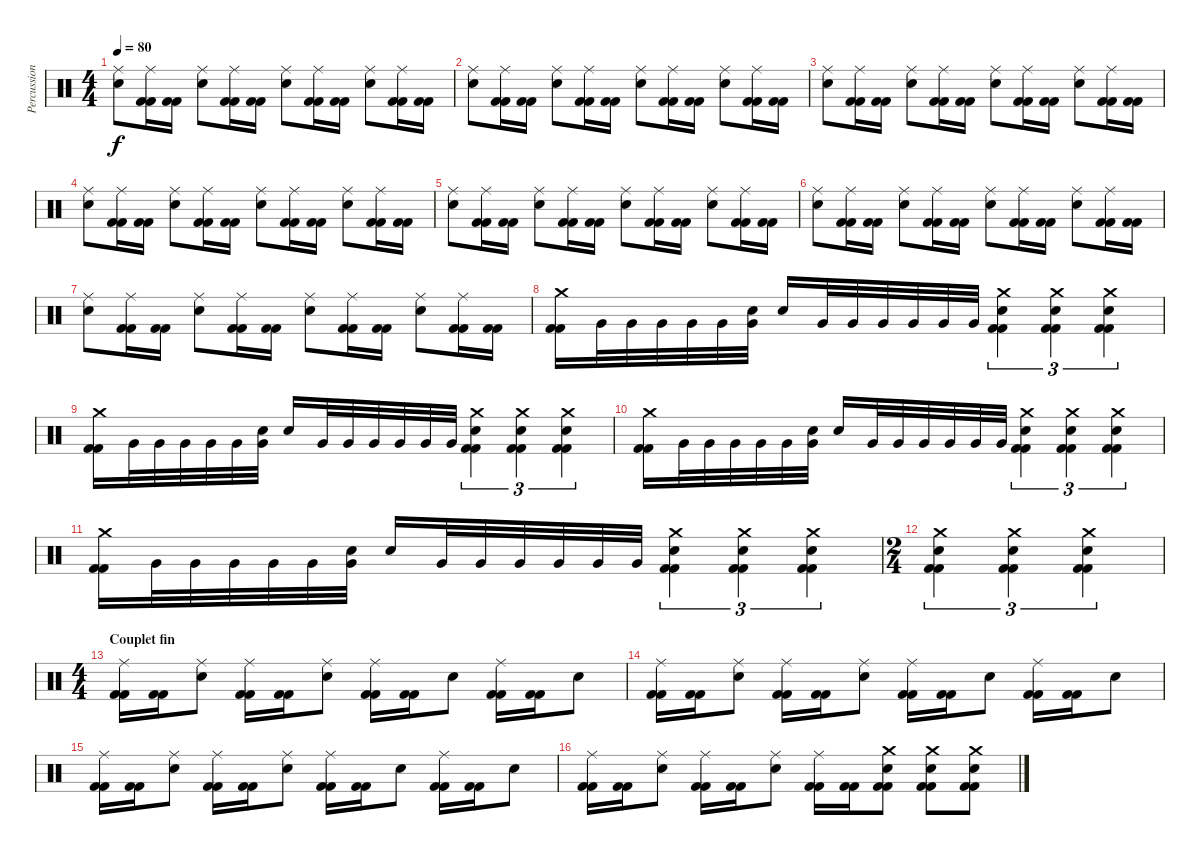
\track ("Percussions" "Percussion") {instrument percussion}
\staff {score}
\articulation defaults
\ts (4 4)
\tempo 80
\clef neutral
\ks c
("Snare (hit) 2" "Ride (middle)").8{dy f} ("Kick (hit) 2" "Kick (hit) 2" "Ride (middle)").16 ("Kick (hit) 2" "Kick (hit) 2").16 ("Snare (hit) 2" "Ride (middle)").8 ("Kick (hit) 2" "Kick (hit) 2" "Ride (middle)").16 ("Kick (hit) 2" "Kick (hit) 2").16 ("Snare (hit) 2" "Ride (middle)").8 ("Kick (hit) 2" "Kick (hit) 2" "Ride (middle)").16 ("Kick (hit) 2" "Kick (hit) 2").16 ("Snare (hit) 2" "Ride (middle)").8 ("Kick (hit) 2" "Kick (hit) 2" "Ride (middle)").16 ("Kick (hit) 2" "Kick (hit) 2").16 |
("Snare (hit) 2" "Ride (middle)").8 ("Kick (hit) 2" "Kick (hit) 2" "Ride (middle)").16 ("Kick (hit) 2" "Kick (hit) 2").16 ("Snare (hit) 2" "Ride (middle)").8 ("Kick (hit) 2" "Kick (hit) 2" "Ride (middle)").16 ("Kick (hit) 2" "Kick (hit) 2").16 ("Snare (hit) 2" "Ride (middle)").8 ("Kick (hit) 2" "Kick (hit) 2" "Ride (middle)").16 ("Kick (hit) 2" "Kick (hit) 2").16 ("Snare (hit) 2" "Ride (middle)").8 ("Kick (hit) 2" "Kick (hit) 2" "Ride (middle)").16 ("Kick (hit) 2" "Kick (hit) 2").16 |
("Snare (hit) 2" "Ride (middle)").8 ("Kick (hit) 2" "Kick (hit) 2" "Ride (middle)").16 ("Kick (hit) 2" "Kick (hit) 2").16 ("Snare (hit) 2" "Ride (middle)").8 ("Kick (hit) 2" "Kick (hit) 2" "Ride (middle)").16 ("Kick (hit) 2" "Kick (hit) 2").16 ("Snare (hit) 2" "Ride (middle)").8 ("Kick (hit) 2" "Kick (hit) 2" "Ride (middle)").16 ("Kick (hit) 2" "Kick (hit) 2").16 ("Snare (hit) 2" "Ride (middle)").8 ("Kick (hit) 2" "Kick (hit) 2" "Ride (middle)").16 ("Kick (hit) 2" "Kick (hit) 2").16 |
("Snare (hit) 2" "Ride (middle)").8 ("Kick (hit) 2" "Kick (hit) 2" "Ride (middle)").16 ("Kick (hit) 2" "Kick (hit) 2").16 ("Snare (hit) 2" "Ride (middle)").8 ("Kick (hit) 2" "Kick (hit) 2" "Ride (middle)").16 ("Kick (hit) 2" "Kick (hit) 2").16 ("Snare (hit) 2" "Ride (middle)").8 ("Kick (hit) 2" "Kick (hit) 2" "Ride (middle)").16 ("Kick (hit) 2" "Kick (hit) 2").16 ("Snare (hit) 2" "Ride (middle)").8 ("Kick (hit) 2" "Kick (hit) 2" "Ride (middle)").16 ("Kick (hit) 2" "Kick (hit) 2").16 |
("Snare (hit) 2" "Ride (middle)").8 ("Kick (hit) 2" "Kick (hit) 2" "Ride (middle)").16 ("Kick (hit) 2" "Kick (hit) 2").16 ("Snare (hit) 2" "Ride (middle)").8 ("Kick (hit) 2" "Kick (hit) 2" "Ride (middle)").16 ("Kick (hit) 2" "Kick (hit) 2").16 ("Snare (hit) 2" "Ride (middle)").8 ("Kick (hit) 2" "Kick (hit) 2" "Ride (middle)").16 ("Kick (hit) 2" "Kick (hit) 2").16 ("Snare (hit) 2" "Ride (middle)").8 ("Kick (hit) 2" "Kick (hit) 2" "Ride (middle)").16 ("Kick (hit) 2" "Kick (hit) 2").16 |
("Snare (hit) 2" "Ride (middle)").8 ("Kick (hit) 2" "Kick (hit) 2" "Ride (middle)").16 ("Kick (hit) 2" "Kick (hit) 2").16 ("Snare (hit) 2" "Ride (middle)").8 ("Kick (hit) 2" "Kick (hit) 2" "Ride (middle)").16 ("Kick (hit) 2" "Kick (hit) 2").16 ("Snare (hit) 2" "Ride (middle)").8 ("Kick (hit) 2" "Kick (hit) 2" "Ride (middle)").16 ("Kick (hit) 2" "Kick (hit) 2").16 ("Snare (hit) 2" "Ride (middle)").8 ("Kick (hit) 2" "Kick (hit) 2" "Ride (middle)").16 ("Kick (hit) 2" "Kick (hit) 2").16 |
("Snare (hit) 2" "Ride (middle)").8 ("Kick (hit) 2" "Kick (hit) 2" "Ride (middle)").16 ("Kick (hit) 2" "Kick (hit) 2").16 ("Snare (hit) 2" "Ride (middle)").8 ("Kick (hit) 2" "Kick (hit) 2" "Ride (middle)").16 ("Kick (hit) 2" "Kick (hit) 2").16 ("Snare (hit) 2" "Ride (middle)").8 ("Kick (hit) 2" "Kick (hit) 2" "Ride (middle)").16 ("Kick (hit) 2" "Kick (hit) 2").16 ("Snare (hit) 2" "Ride (middle)").8 ("Kick (hit) 2" "Kick (hit) 2" "Ride (middle)").16 ("Kick (hit) 2" "Kick (hit) 2").16 |
("Crash medium (hit)" "Kick (hit) 2" "Kick (hit) 2").16 "Very Low Tom (hit)".32 "Very Low Tom (hit)".32 "Very Low Tom (hit)".32 "Very Low Tom (hit)".32 "Very Low Tom (hit)".32 ("Snare (hit) 2" "Very Low Tom (hit)").32 "Snare (hit) 2".16 "Very Low Tom (hit)".32 "Very Low Tom (hit)".32 "Very Low Tom (hit)".32 "Very Low Tom (hit)".32 "Very Low Tom (hit)".32 "Very Low Tom (hit)".32 ("Snare (hit) 2" "Kick (hit) 2" "Kick (hit) 2" "Crash medium (hit)").4{tu (3 2)} ("Snare (hit) 2" "Kick (hit) 2" "Kick (hit) 2" "Crash medium (hit)").4{tu (3 2)} ("Snare (hit) 2" "Kick (hit) 2" "Kick (hit) 2" "Crash medium (hit)").4{tu (3 2)} |
("Crash medium (hit)" "Kick (hit) 2" "Kick (hit) 2").16 "Very Low Tom (hit)".32 "Very Low Tom (hit)".32 "Very Low Tom (hit)".32 "Very Low Tom (hit)".32 "Very Low Tom (hit)".32 ("Snare (hit) 2" "Very Low Tom (hit)").32 "Snare (hit) 2".16 "Very Low Tom (hit)".32 "Very Low Tom (hit)".32 "Very Low Tom (hit)".32 "Very Low Tom (hit)".32 "Very Low Tom (hit)".32 "Very Low Tom (hit)".32 ("Snare (hit) 2" "Kick (hit) 2" "Kick (hit) 2" "Crash medium (hit)").4{tu (3 2)} ("Snare (hit) 2" "Kick (hit) 2" "Kick (hit) 2" "Crash medium (hit)").4{tu (3 2)} ("Snare (hit) 2" "Kick (hit) 2" "Kick (hit) 2" "Crash medium (hit)").4{tu (3 2)} |
("Crash medium (hit)" "Kick (hit) 2" "Kick (hit) 2").16 "Very Low Tom (hit)".32 "Very Low Tom (hit)".32 "Very Low Tom (hit)".32 "Very Low Tom (hit)".32 "Very Low Tom (hit)".32 ("Snare (hit) 2" "Very Low Tom (hit)").32 "Snare (hit) 2".16 "Very Low Tom (hit)".32 "Very Low Tom (hit)".32 "Very Low Tom (hit)".32 "Very Low Tom (hit)".32 "Very Low Tom (hit)".32 "Very Low Tom (hit)".32 ("Snare (hit) 2" "Kick (hit) 2" "Kick (hit) 2" "Crash medium (hit)").4{tu (3 2)} ("Snare (hit) 2" "Kick (hit) 2" "Kick (hit) 2" "Crash medium (hit)").4{tu (3 2)} ("Snare (hit) 2" "Kick (hit) 2" "Kick (hit) 2" "Crash medium (hit)").4{tu (3 2)} |
("Crash medium (hit)" "Kick (hit) 2" "Kick (hit) 2").16 "Very Low Tom (hit)".32 "Very Low Tom (hit)".32 "Very Low Tom (hit)".32 "Very Low Tom (hit)".32 "Very Low Tom (hit)".32 ("Snare (hit) 2" "Very Low Tom (hit)").32 "Snare (hit) 2".16 "Very Low Tom (hit)".32 "Very Low Tom (hit)".32 "Very Low Tom (hit)".32 "Very Low Tom (hit)".32 "Very Low Tom (hit)".32 "Very Low Tom (hit)".32 ("Snare (hit) 2" "Kick (hit) 2" "Kick (hit) 2" "Crash medium (hit)").4{tu (3 2)} ("Snare (hit) 2" "Kick (hit) 2" "Kick (hit) 2" "Crash medium (hit)").4{tu (3 2)} ("Snare (hit) 2" "Kick (hit) 2" "Kick (hit) 2" "Crash medium (hit)").4{tu (3 2)} |
\ts (2 4)
("Snare (hit) 2" "Kick (hit) 2" "Kick (hit) 2" "Crash medium (hit)").4{tu (3 2)} ("Snare (hit) 2" "Kick (hit) 2" "Kick (hit) 2" "Crash medium (hit)").4{tu (3 2)} ("Snare (hit) 2" "Kick (hit) 2" "Kick (hit) 2" "Crash medium (hit)").4{tu (3 2)} |
\ts (4 4)
\section ("" "Couplet fin")
("Kick (hit) 2" "Kick (hit) 2" "Ride (middle)").16 ("Kick (hit) 2" "Kick (hit) 2").16 ("Snare (hit) 2" "Ride (middle)").8 ("Kick (hit) 2" "Kick (hit) 2" "Ride (middle)").16 ("Kick (hit) 2" "Kick (hit) 2").16 ("Snare (hit) 2" "Ride (middle)").8 ("Kick (hit) 2" "Kick (hit) 2" "Ride (middle)").16 ("Kick (hit) 2" "Kick (hit) 2").16 "Snare (hit) 2".8 ("Kick (hit) 2" "Kick (hit) 2" "Ride (middle)").16 ("Kick (hit) 2" "Kick (hit) 2").16 "Snare (hit) 2".8 |
("Kick (hit) 2" "Kick (hit) 2" "Ride (middle)").16 ("Kick (hit) 2" "Kick (hit) 2").16 ("Snare (hit) 2" "Ride (middle)").8 ("Kick (hit) 2" "Kick (hit) 2" "Ride (middle)").16 ("Kick (hit) 2" "Kick (hit) 2").16 ("Snare (hit) 2" "Ride (middle)").8 ("Kick (hit) 2" "Kick (hit) 2" "Ride (middle)").16 ("Kick (hit) 2" "Kick (hit) 2").16 "Snare (hit) 2".8 ("Kick (hit) 2" "Kick (hit) 2" "Ride (middle)").16 ("Kick (hit) 2" "Kick (hit) 2").16 "Snare (hit) 2".8 |
("Kick (hit) 2" "Kick (hit) 2" "Ride (middle)").16 ("Kick (hit) 2" "Kick (hit) 2").16 ("Snare (hit) 2" "Ride (middle)").8 ("Kick (hit) 2" "Kick (hit) 2" "Ride (middle)").16 ("Kick (hit) 2" "Kick (hit) 2").16 ("Snare (hit) 2" "Ride (middle)").8 ("Kick (hit) 2" "Kick (hit) 2" "Ride (middle)").16 ("Kick (hit) 2" "Kick (hit) 2").16 "Snare (hit) 2".8 ("Kick (hit) 2" "Kick (hit) 2" "Ride (middle)").16 ("Kick (hit) 2" "Kick (hit) 2").16 "Snare (hit) 2".8 |
("Kick (hit) 2" "Kick (hit) 2" "Ride (middle)").16 ("Kick (hit) 2" "Kick (hit) 2").16 ("Snare (hit) 2" "Ride (middle)").8 ("Kick (hit) 2" "Kick (hit) 2" "Ride (middle)").16 ("Kick (hit) 2" "Kick (hit) 2").16 ("Snare (hit) 2" "Ride (middle)").8 ("Kick (hit) 2" "Kick (hit) 2" "Ride (middle)").16 ("Kick (hit) 2" "Kick (hit) 2").16 ("Snare (hit) 2" "Kick (hit) 2" "Kick (hit) 2" "Crash medium (hit)").8 ("Snare (hit) 2" "Kick (hit) 2" "Kick (hit) 2" "Crash medium (hit)").8 ("Snare (hit) 2" "Kick (hit) 2" "Kick (hit) 2" "Crash medium (hit)").8
